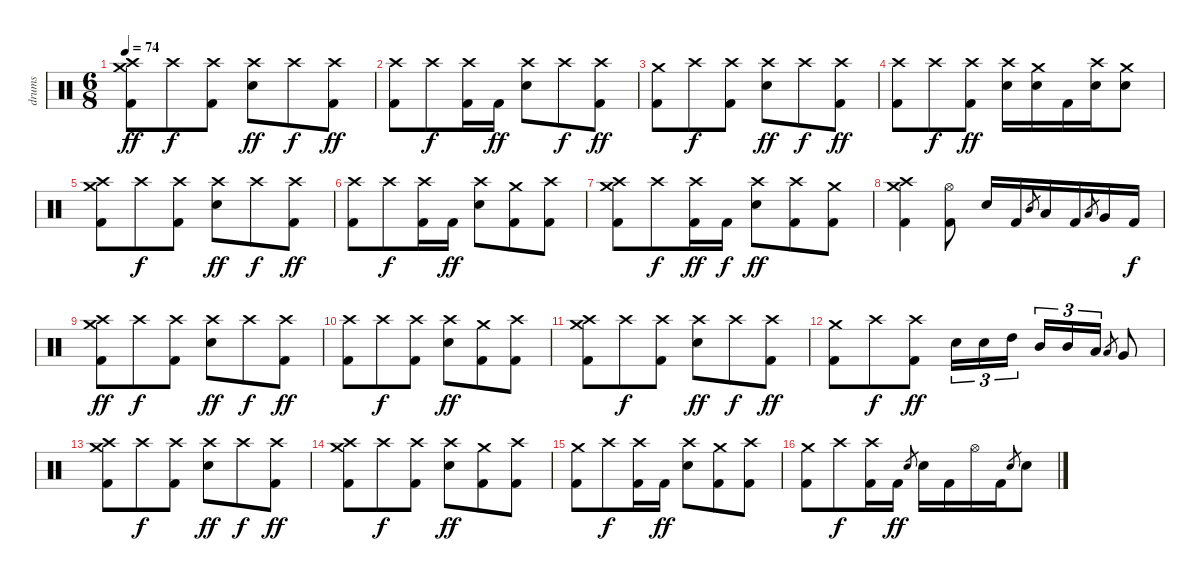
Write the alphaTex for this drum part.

\track ("drums" "drums") {instrument percussion}
\staff {score}
\articulation defaults
\ts (6 8)
\tempo 74
\clef neutral
\ks c
("Crash high (hit)" "Crash medium (hit)" "Kick (hit) 2").8{dy ff} "Crash high (hit)".8{dy f} ("Crash high (hit)" "Kick (hit) 2").8 ("Crash high (hit)" "Snare (hit) 2").8{dy ff} "Crash high (hit)".8{dy f} ("Crash high (hit)" "Kick (hit) 2").8{dy ff} |
("Crash high (hit)" "Kick (hit) 2").8 "Crash high (hit)".8{dy f} ("Crash high (hit)" "Kick (hit) 2").16 "Kick (hit) 2".16{dy ff} ("Crash high (hit)" "Snare (hit) 2").8 "Crash high (hit)".8{dy f} ("Crash high (hit)" "Kick (hit) 2").8{dy ff} |
("Crash medium (hit)" "Kick (hit) 2").8 "Crash high (hit)".8{dy f} ("Crash high (hit)" "Kick (hit) 2").8 ("Crash high (hit)" "Snare (hit) 2").8{dy ff} "Crash high (hit)".8{dy f} ("Crash high (hit)" "Kick (hit) 2").8{dy ff} |
("Crash high (hit)" "Kick (hit) 2").8 "Crash high (hit)".8{dy f} ("Crash high (hit)" "Kick (hit) 2").8{dy ff} ("Crash high (hit)" "Snare (hit) 2").16 ("Crash medium (hit)" "Snare (hit) 2").16 "Kick (hit) 2".16 ("Crash high (hit)" "Snare (hit) 2").16 ("Crash medium (hit)" "Snare (hit) 2").8 |
("Crash medium (hit)" "Crash high (hit)" "Kick (hit) 2").8 "Crash high (hit)".8{dy f} ("Crash high (hit)" "Kick (hit) 2").8 ("Crash high (hit)" "Snare (hit) 2").8{dy ff} "Crash high (hit)".8{dy f} ("Crash high (hit)" "Kick (hit) 2").8{dy ff} |
("Crash high (hit)" "Kick (hit) 2").8 "Crash high (hit)".8{dy f} ("Crash high (hit)" "Kick (hit) 2").16 "Kick (hit) 2".16{dy ff} ("Crash high (hit)" "Snare (hit) 2").8 ("Crash medium (hit)" "Kick (hit) 2").8 ("Crash high (hit)" "Kick (hit) 2").8 |
("Crash high (hit)" "Crash medium (hit)" "Kick (hit) 2").8 "Crash high (hit)".8{dy f} ("Crash high (hit)" "Kick (hit) 2").16{dy ff} "Kick (hit) 2".16{dy f} ("Crash high (hit)" "Snare (hit) 2").8{dy ff} ("Crash high (hit)" "Kick (hit) 2").8 ("Crash medium (hit)" "Kick (hit) 2").8 |
("Crash medium (hit)" "Crash high (hit)" "Kick (hit) 2").4 ("Hi-Hat (open)" "Kick (hit) 2").8 "Snare (hit) 2".16 "Kick (hit) 2".16 "Mid Tom (hit)".8{gr} "Low Tom (hit)".16 "Kick (hit) 2".16 "Low Tom (hit)".8{gr} "Very Low Tom (hit)".16 "Kick (hit) 2".16{dy f} |
("Crash high (hit)" "Crash medium (hit)" "Kick (hit) 2").8{dy ff} "Crash high (hit)".8{dy f} ("Crash high (hit)" "Kick (hit) 2").8 ("Crash high (hit)" "Snare (hit) 2").8{dy ff} "Crash high (hit)".8{dy f} ("Crash high (hit)" "Kick (hit) 2").8{dy ff} |
("Crash high (hit)" "Kick (hit) 2").8 "Crash high (hit)".8{dy f} ("Crash high (hit)" "Kick (hit) 2").8 ("Crash high (hit)" "Snare (hit) 2").8{dy ff} ("Crash medium (hit)" "Kick (hit) 2").8 ("Crash high (hit)" "Kick (hit) 2").8 |
("Crash high (hit)" "Crash medium (hit)" "Kick (hit) 2").8 "Crash high (hit)".8{dy f} ("Crash high (hit)" "Kick (hit) 2").8 ("Crash high (hit)" "Snare (hit) 2").8{dy ff} "Crash high (hit)".8{dy f} ("Crash high (hit)" "Kick (hit) 2").8{dy ff} |
("Crash medium (hit)" "Kick (hit) 2").8 "Crash high (hit)".8{dy f} ("Crash high (hit)" "Kick (hit) 2").8{dy ff} "Snare (hit) 2".16{tu (3 2)} "Snare (hit) 2".16{tu (3 2)} "High Tom (hit)".16{tu (3 2)} "Mid Tom (hit)".16{tu (3 2)} "Mid Tom (hit)".16{tu (3 2)} "Low Tom (hit)".16{tu (3 2)} "Low Tom (hit)".8{gr} "Very Low Tom (hit)".8 |
("Crash high (hit)" "Crash medium (hit)" "Kick (hit) 2").8 "Crash high (hit)".8{dy f} ("Crash high (hit)" "Kick (hit) 2").8 ("Crash high (hit)" "Snare (hit) 2").8{dy ff} "Crash high (hit)".8{dy f} ("Crash high (hit)" "Kick (hit) 2").8{dy ff} |
("Crash high (hit)" "Crash medium (hit)" "Kick (hit) 2").8 "Crash high (hit)".8{dy f} ("Crash high (hit)" "Kick (hit) 2").8 ("Crash high (hit)" "Snare (hit) 2").8{dy ff} ("Crash medium (hit)" "Kick (hit) 2").8 ("Crash high (hit)" "Kick (hit) 2").8 |
("Crash medium (hit)" "Kick (hit) 2").8 "Crash high (hit)".8{dy f} ("Crash high (hit)" "Kick (hit) 2").16 "Kick (hit) 2".16{dy ff} ("Crash high (hit)" "Snare (hit) 2").8 ("Crash medium (hit)" "Kick (hit) 2").8 ("Crash high (hit)" "Kick (hit) 2").8 |
("Crash medium (hit)" "Kick (hit) 2").8 "Crash high (hit)".8{dy f} ("Crash high (hit)" "Kick (hit) 2").16 "Kick (hit) 2".16{dy ff} "Snare (hit) 2".8{gr} "Snare (hit) 2".16 "Kick (hit) 2".16 "Hi-Hat (open)".16 "Kick (hit) 2".16 "Snare (hit) 2".8{gr} "Snare (hit) 2".8
